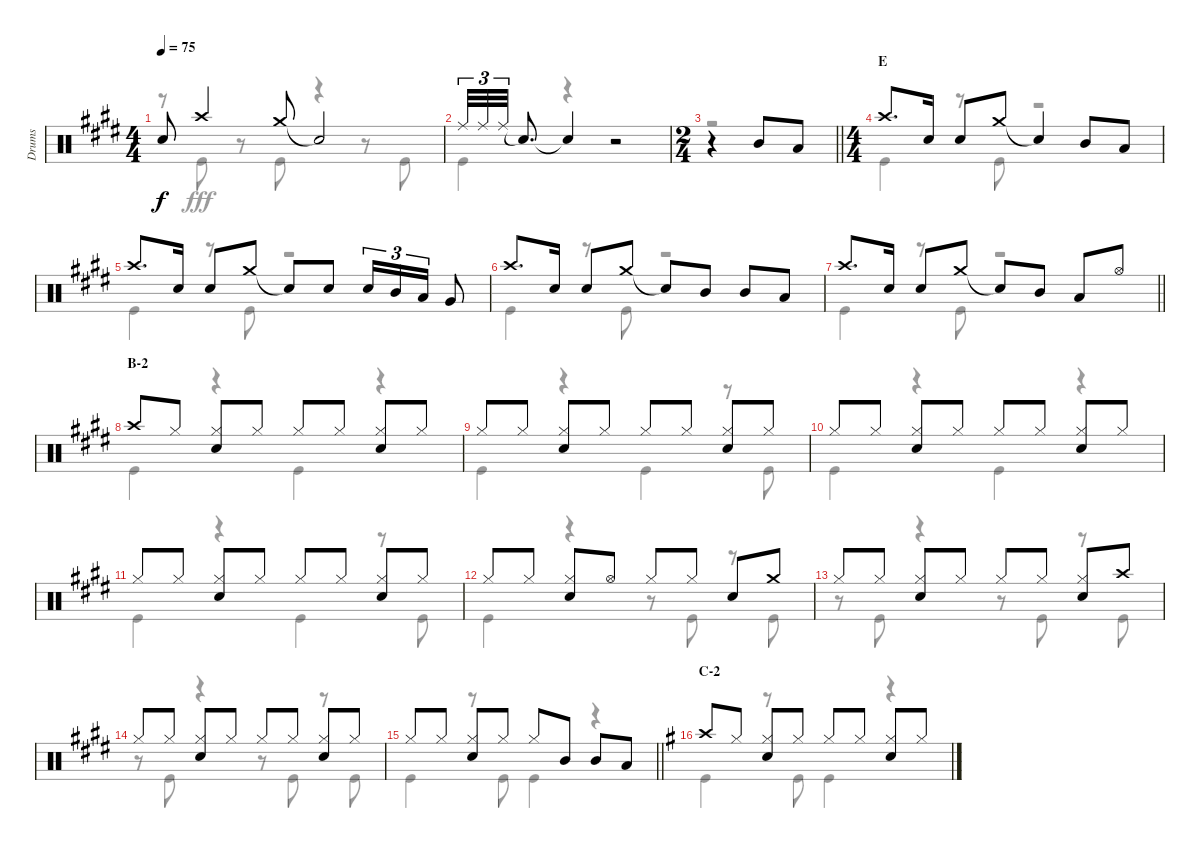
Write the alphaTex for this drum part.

\track ("Drums" "Drums") {instrument percussion}
\staff {score}
\articulation defaults
\voice
\ts (4 4)
\tempo 75
\clef neutral
\ks e "Snare (hit)"{t}.8{dy f} "Crash high (hit)".4 "Crash medium (hit)".8 "Snare (hit)"{t}.2
|
"Ride (middle)".32{tu (3 2)} "Ride (middle)".32{tu (3 2)} "Ride (middle)".32{tu (3 2)} "Snare (hit)"{t}.8{d} "Snare (hit)"{t}.4 r.2 |
\ts (2 4)
\barLineRight lightlight
r.4 "Mid Tom (hit)".8 "Low Tom (hit)".8 |
\ts (4 4)
\section ("" "E")
"Crash high (hit)".8{d} "Snare (hit) 2".16 "Snare (hit) 2".8 "Crash medium (hit)".8 "Snare (hit)"{t}.4 "Mid Tom (hit)".8 "Low Tom (hit)".8 |
"Crash high (hit)".8{d} "Snare (hit) 2".16 "Snare (hit) 2".8 "Crash medium (hit)".8 "Snare (hit)"{t}.8 "Snare (hit) 2".8 "Snare (hit) 2".16{tu (3 2)} "Mid Tom (hit)".16{tu (3 2)} "Low Tom (hit)".16{tu (3 2)} "Very Low Tom (hit)".8 |
"Crash high (hit)".8{d} "Snare (hit) 2".16 "Snare (hit) 2".8 "Crash medium (hit)".8 "Snare (hit)"{t}.8 "Mid Tom (hit)".8 "Mid Tom (hit)".8 "Low Tom (hit)".8 |
\barLineRight lightlight "Crash high (hit)".8{d} "Snare (hit) 2".16 "Snare (hit) 2".8 "Crash medium (hit)".8 "Snare (hit)"{t}.8 "Mid Tom (hit)".8 "Low Tom (hit)".8 "Hi-Hat (open)".8
|
\section ("" "B-2")
"Crash high (hit)".8 "Hi-Hat (closed)".8 ("Hi-Hat (closed)" "Snare (hit) 2").8 "Hi-Hat (closed)".8 "Hi-Hat (closed)".8 "Hi-Hat (closed)".8 ("Hi-Hat (closed)" "Snare (hit) 2").8 "Hi-Hat (closed)".8 |
"Hi-Hat (closed)".8 "Hi-Hat (closed)".8 ("Hi-Hat (closed)" "Snare (hit) 2").8 "Hi-Hat (closed)".8 "Hi-Hat (closed)".8 "Hi-Hat (closed)".8 ("Hi-Hat (closed)" "Snare (hit) 2").8 "Hi-Hat (closed)".8 |
"Hi-Hat (closed)".8 "Hi-Hat (closed)".8 ("Hi-Hat (closed)" "Snare (hit) 2").8 "Hi-Hat (closed)".8 "Hi-Hat (closed)".8 "Hi-Hat (closed)".8 ("Hi-Hat (closed)" "Snare (hit) 2").8 "Hi-Hat (closed)".8 |
"Hi-Hat (closed)".8 "Hi-Hat (closed)".8 ("Hi-Hat (closed)" "Snare (hit) 2").8 "Hi-Hat (closed)".8 "Hi-Hat (closed)".8 "Hi-Hat (closed)".8 ("Hi-Hat (closed)" "Snare (hit) 2").8 "Hi-Hat (closed)".8 |
"Hi-Hat (closed)".8 "Hi-Hat (closed)".8 ("Hi-Hat (closed)" "Snare (hit) 2").8 "Hi-Hat (open)".8 "Hi-Hat (closed)".8 "Hi-Hat (closed)".8 "Snare (hit) 2".8 "Crash medium (hit)".8 |
"Hi-Hat (closed)".8 "Hi-Hat (closed)".8 ("Hi-Hat (closed)" "Snare (hit) 2").8 "Hi-Hat (closed)".8 "Hi-Hat (closed)".8 "Hi-Hat (closed)".8 ("Hi-Hat (closed)" "Snare (hit) 2").8 "Crash high (hit)".8 |
"Hi-Hat (closed)".8 "Hi-Hat (closed)".8 ("Hi-Hat (closed)" "Snare (hit) 2").8 "Hi-Hat (closed)".8 "Hi-Hat (closed)".8 "Hi-Hat (closed)".8 ("Hi-Hat (closed)" "Snare (hit) 2").8 "Hi-Hat (closed)".8 |
\barLineRight lightlight "Hi-Hat (closed)".8 "Hi-Hat (closed)".8
("Hi-Hat (closed)" "Snare (hit) 2").8 "Hi-Hat (closed)".8 "Hi-Hat (closed)".8 "Mid Tom (hit)".8 "Mid Tom (hit)".8 "Low Tom (hit)".8 |
\section ("" "C-2")
\ks g "Crash high (hit)".8 "Hi-Hat (closed)".8
("Hi-Hat (closed)" "Snare (hit) 2").8 "Hi-Hat (closed)".8 "Hi-Hat (closed)".8 "Hi-Hat (closed)".8 ("Hi-Hat (closed)" "Snare (hit) 2").8 "Hi-Hat (closed)".8
\voice
\clef neutral
\ottava regular
\simile none
\ks e
r.8{dy fff} "Kick (hit)".8 r.8 "Kick (hit)".8 r.4 r.8 "Kick (hit)".8 |
"Kick (hit)".4 r.4 r.2 |
\barLineRight lightlight
r.2 |
"Kick (hit)".4 r.8 "Kick (hit)".8 r.2 |
"Kick (hit)".4 r.8 "Kick (hit)".8 r.2 |
"Kick (hit)".4 r.8 "Kick (hit)".8 r.2 |
\barLineRight lightlight "Kick (hit)".4
r.8 "Kick (hit)".8 r.2 |
"Kick (hit)".4 r.4 "Kick (hit)".4 r.4 |
"Kick (hit)".4 r.4 "Kick (hit)".4 r.8 "Kick (hit)".8 |
"Kick (hit)".4 r.4 "Kick (hit)".4 r.4 |
"Kick (hit)".4 r.4 "Kick (hit)".4 r.8 "Kick (hit)".8 |
"Kick (hit)".4 r.4 r.8 "Kick (hit)".8 r.8 "Kick (hit)".8 |
r.8 "Kick (hit)".8 r.4 r.8 "Kick (hit)".8 r.8 "Kick (hit)".8 |
r.8 "Kick (hit)".8 r.4 r.8 "Kick (hit)".8 r.8 "Kick (hit)".8 |
\barLineRight lightlight "Kick (hit)".4
r.8 "Kick (hit)".8 "Kick (hit)".4 r.4 |
\ks g "Kick (hit)".4
r.8 "Kick (hit)".8 "Kick (hit)".4 r.4
